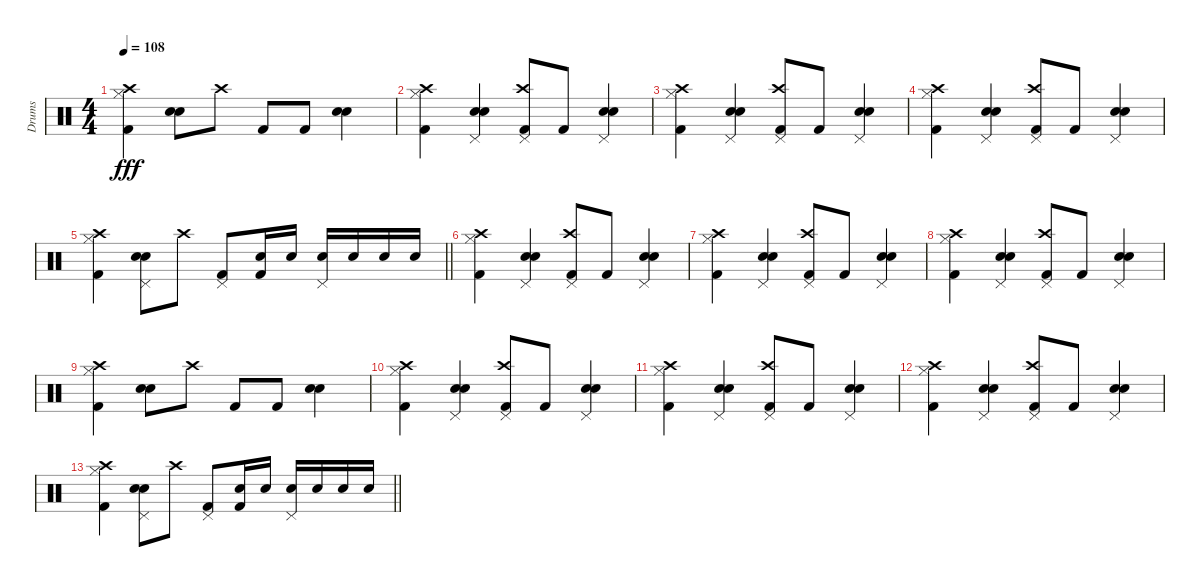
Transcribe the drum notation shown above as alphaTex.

\track ("Drums" "Drums") {instrument percussion}
\staff {score}
\articulation defaults
\ts (4 4)
\tempo 108
\clef neutral
\ks c
("Hi-Hat (closed)" "Kick (hit) 2" "Crash high (hit)").4{dy fff} ("Electric Snare (hit)" "Snare (hit) 2").8 "Crash high (hit)".8 "Kick (hit) 2".8 "Kick (hit) 2".8 ("Electric Snare (hit)" "Snare (hit) 2").4 |
("Hi-Hat (closed)" "Kick (hit) 2" "Crash high (hit)").4 ("Electric Snare (hit)" "Pedal Hi-Hat (hit)" "Snare (hit) 2").4 ("Pedal Hi-Hat (hit)" "Kick (hit) 2" "Crash high (hit)").8 "Kick (hit) 2".8 ("Electric Snare (hit)" "Pedal Hi-Hat (hit)" "Snare (hit) 2").4 |
("Hi-Hat (closed)" "Kick (hit) 2" "Crash high (hit)").4 ("Electric Snare (hit)" "Pedal Hi-Hat (hit)" "Snare (hit) 2").4 ("Pedal Hi-Hat (hit)" "Kick (hit) 2" "Crash high (hit)").8 "Kick (hit) 2".8 ("Electric Snare (hit)" "Pedal Hi-Hat (hit)" "Snare (hit) 2").4 |
("Hi-Hat (closed)" "Kick (hit) 2" "Crash high (hit)").4 ("Electric Snare (hit)" "Pedal Hi-Hat (hit)" "Snare (hit) 2").4 ("Pedal Hi-Hat (hit)" "Kick (hit) 2" "Crash high (hit)").8 "Kick (hit) 2".8 ("Electric Snare (hit)" "Pedal Hi-Hat (hit)" "Snare (hit) 2").4 |
\barLineRight lightlight
("Hi-Hat (closed)" "Kick (hit) 2" "Crash high (hit)").4 ("Electric Snare (hit)" "Pedal Hi-Hat (hit)" "Snare (hit) 2").8 "Crash high (hit)".8 ("Pedal Hi-Hat (hit)" "Kick (hit) 2").8 ("Kick (hit) 2" "Snare (hit) 2").16 "Snare (hit) 2".16 ("Pedal Hi-Hat (hit)" "Electric Snare (hit)").16 "Electric Snare (hit)".16 "Electric Snare (hit)".16 "Electric Snare (hit)".16 |
("Hi-Hat (closed)" "Kick (hit) 2" "Crash high (hit)").4 ("Electric Snare (hit)" "Pedal Hi-Hat (hit)" "Snare (hit) 2").4 ("Pedal Hi-Hat (hit)" "Kick (hit) 2" "Crash high (hit)").8 "Kick (hit) 2".8 ("Electric Snare (hit)" "Pedal Hi-Hat (hit)" "Snare (hit) 2").4 |
("Hi-Hat (closed)" "Kick (hit) 2" "Crash high (hit)").4 ("Electric Snare (hit)" "Pedal Hi-Hat (hit)" "Snare (hit) 2").4 ("Pedal Hi-Hat (hit)" "Kick (hit) 2" "Crash high (hit)").8 "Kick (hit) 2".8 ("Electric Snare (hit)" "Pedal Hi-Hat (hit)" "Snare (hit) 2").4 |
("Hi-Hat (closed)" "Kick (hit) 2" "Crash high (hit)").4 ("Electric Snare (hit)" "Pedal Hi-Hat (hit)" "Snare (hit) 2").4 ("Pedal Hi-Hat (hit)" "Kick (hit) 2" "Crash high (hit)").8 "Kick (hit) 2".8 ("Electric Snare (hit)" "Pedal Hi-Hat (hit)" "Snare (hit) 2").4 |
("Hi-Hat (closed)" "Kick (hit) 2" "Crash high (hit)").4 ("Electric Snare (hit)" "Snare (hit) 2").8 "Crash high (hit)".8 "Kick (hit) 2".8 "Kick (hit) 2".8 ("Electric Snare (hit)" "Snare (hit) 2").4 |
("Hi-Hat (closed)" "Kick (hit) 2" "Crash high (hit)").4 ("Electric Snare (hit)" "Pedal Hi-Hat (hit)" "Snare (hit) 2").4 ("Pedal Hi-Hat (hit)" "Kick (hit) 2" "Crash high (hit)").8 "Kick (hit) 2".8 ("Electric Snare (hit)" "Pedal Hi-Hat (hit)" "Snare (hit) 2").4 |
("Hi-Hat (closed)" "Kick (hit) 2" "Crash high (hit)").4 ("Electric Snare (hit)" "Pedal Hi-Hat (hit)" "Snare (hit) 2").4 ("Pedal Hi-Hat (hit)" "Kick (hit) 2" "Crash high (hit)").8 "Kick (hit) 2".8 ("Electric Snare (hit)" "Pedal Hi-Hat (hit)" "Snare (hit) 2").4 |
("Hi-Hat (closed)" "Kick (hit) 2" "Crash high (hit)").4 ("Electric Snare (hit)" "Pedal Hi-Hat (hit)" "Snare (hit) 2").4 ("Pedal Hi-Hat (hit)" "Kick (hit) 2" "Crash high (hit)").8 "Kick (hit) 2".8 ("Electric Snare (hit)" "Pedal Hi-Hat (hit)" "Snare (hit) 2").4 |
\barLineRight lightlight
("Hi-Hat (closed)" "Kick (hit) 2" "Crash high (hit)").4 ("Electric Snare (hit)" "Pedal Hi-Hat (hit)" "Snare (hit) 2").8 "Crash high (hit)".8 ("Pedal Hi-Hat (hit)" "Kick (hit) 2").8 ("Kick (hit) 2" "Snare (hit) 2").16 "Snare (hit) 2".16 ("Pedal Hi-Hat (hit)" "Electric Snare (hit)").16 "Electric Snare (hit)".16 "Electric Snare (hit)".16 "Electric Snare (hit)".16
